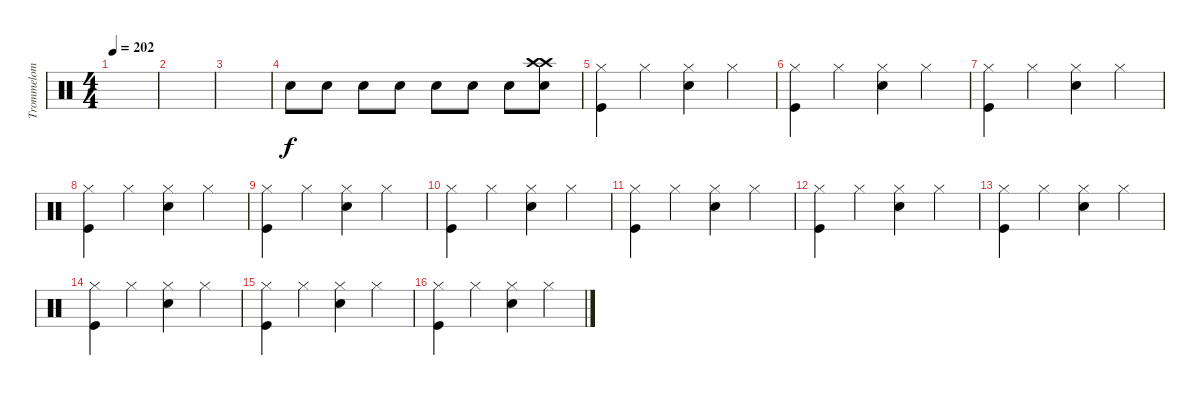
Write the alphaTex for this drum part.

\track ("Trommelom" "Trommelom") {instrument percussion}
\staff {score}
\articulation defaults
\ts (4 4)
\tempo 202
\clef neutral
\ks c
|
|
|
"Snare (hit) 2".8 "Snare (hit) 2".8 "Snare (hit) 2".8 "Snare (hit) 2".8 "Snare (hit) 2".8 "Snare (hit) 2".8 "Snare (hit) 2".8 ("Crash high (hit)" "Crash high (hit)" "Electric Snare (hit)").8 |
("Kick (hit)" "Hi-Hat (closed)").4 "Hi-Hat (closed)".4 ("Electric Snare (hit)" "Hi-Hat (closed)").4 "Hi-Hat (closed)".4 |
("Kick (hit)" "Hi-Hat (closed)").4 "Hi-Hat (closed)".4 ("Electric Snare (hit)" "Hi-Hat (closed)").4 "Hi-Hat (closed)".4 |
("Kick (hit)" "Hi-Hat (closed)").4 "Hi-Hat (closed)".4 ("Electric Snare (hit)" "Hi-Hat (closed)").4 "Hi-Hat (closed)".4 |
("Kick (hit)" "Hi-Hat (closed)").4 "Hi-Hat (closed)".4 ("Electric Snare (hit)" "Hi-Hat (closed)").4 "Hi-Hat (closed)".4 |
("Kick (hit)" "Hi-Hat (closed)").4 "Hi-Hat (closed)".4 ("Electric Snare (hit)" "Hi-Hat (closed)").4 "Hi-Hat (closed)".4 |
("Kick (hit)" "Hi-Hat (closed)").4 "Hi-Hat (closed)".4 ("Electric Snare (hit)" "Hi-Hat (closed)").4 "Hi-Hat (closed)".4 |
("Kick (hit)" "Hi-Hat (closed)").4 "Hi-Hat (closed)".4 ("Electric Snare (hit)" "Hi-Hat (closed)").4 "Hi-Hat (closed)".4 |
("Kick (hit)" "Hi-Hat (closed)").4 "Hi-Hat (closed)".4 ("Electric Snare (hit)" "Hi-Hat (closed)").4 "Hi-Hat (closed)".4 |
("Kick (hit)" "Hi-Hat (closed)").4 "Hi-Hat (closed)".4 ("Electric Snare (hit)" "Hi-Hat (closed)").4 "Hi-Hat (closed)".4 |
("Kick (hit)" "Hi-Hat (closed)").4 "Hi-Hat (closed)".4 ("Electric Snare (hit)" "Hi-Hat (closed)").4 "Hi-Hat (closed)".4 |
("Kick (hit)" "Hi-Hat (closed)").4 "Hi-Hat (closed)".4 ("Electric Snare (hit)" "Hi-Hat (closed)").4 "Hi-Hat (closed)".4 |
("Kick (hit)" "Hi-Hat (closed)").4 "Hi-Hat (closed)".4 ("Electric Snare (hit)" "Hi-Hat (closed)").4 "Hi-Hat (closed)".4
